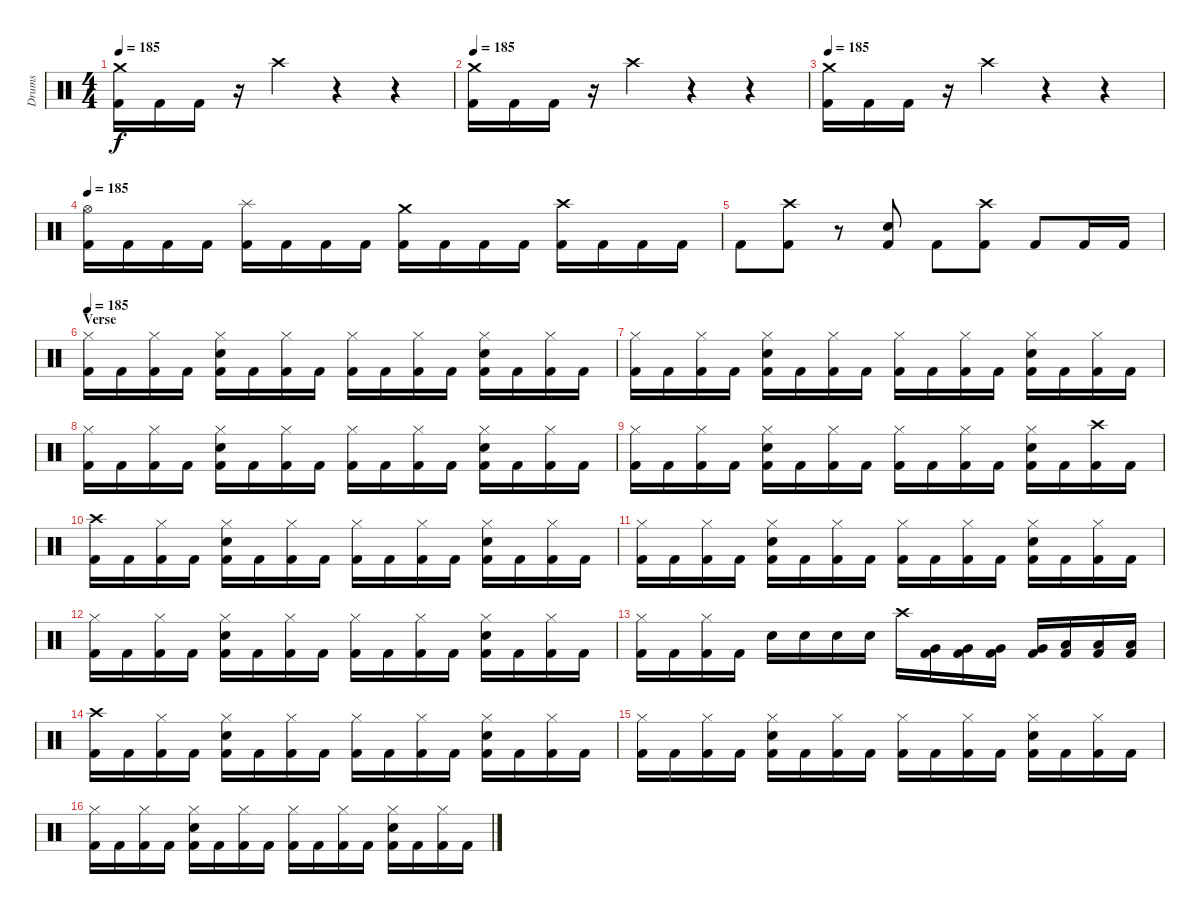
\track ("Drums" "Drums") {instrument percussion}
\staff {score}
\articulation defaults
\ts (4 4)
\tempo 185
\clef neutral
\ks c
("Crash medium (hit)" "Kick (hit) 2").16{dy f} "Kick (hit) 2".16 "Kick (hit) 2".16 r.16 "Crash high (hit)".4 r.4 r.4 |
\tempo 185
("Crash medium (hit)" "Kick (hit) 2").16 "Kick (hit) 2".16 "Kick (hit) 2".16 r.16 "Crash high (hit)".4 r.4 r.4 |
\tempo 185
("Crash medium (hit)" "Kick (hit) 2").16 "Kick (hit) 2".16 "Kick (hit) 2".16 r.16 "Crash high (hit)".4 r.4 r.4 |
\tempo 185
("Hi-Hat (open)" "Kick (hit) 2").16 "Kick (hit) 2".16 "Kick (hit) 2".16 "Kick (hit) 2".16 ("Splash (hit)" "Kick (hit) 2").16 "Kick (hit) 2".16 "Kick (hit) 2".16 "Kick (hit) 2".16 ("Crash medium (hit)" "Kick (hit) 2").16 "Kick (hit) 2".16 "Kick (hit) 2".16 "Kick (hit) 2".16 ("Crash high (hit)" "Kick (hit) 2").16 "Kick (hit) 2".16 "Kick (hit) 2".16 "Kick (hit) 2".16 |
"Kick (hit) 2".8 ("Crash high (hit)" "Kick (hit) 2").8 r.8 ("Electric Snare (hit)" "Kick (hit) 2").8 "Kick (hit) 2".8 ("Crash high (hit)" "Kick (hit) 2").8 "Kick (hit) 2".8 "Kick (hit) 2".16 "Kick (hit) 2".16 |
\section ("" "Verse")
\tempo 185
("Hi-Hat (closed)" "Kick (hit) 2").16 "Kick (hit) 2".16 ("Hi-Hat (closed)" "Kick (hit) 2").16 "Kick (hit) 2".16 ("Hi-Hat (closed)" "Electric Snare (hit)" "Kick (hit) 2").16 "Kick (hit) 2".16 ("Hi-Hat (closed)" "Kick (hit) 2").16 "Kick (hit) 2".16 ("Hi-Hat (closed)" "Kick (hit) 2").16 "Kick (hit) 2".16 ("Hi-Hat (closed)" "Kick (hit) 2").16 "Kick (hit) 2".16 ("Hi-Hat (closed)" "Electric Snare (hit)" "Kick (hit) 2").16 "Kick (hit) 2".16 ("Hi-Hat (closed)" "Kick (hit) 2").16 "Kick (hit) 2".16 |
("Hi-Hat (closed)" "Kick (hit) 2").16 "Kick (hit) 2".16 ("Hi-Hat (closed)" "Kick (hit) 2").16 "Kick (hit) 2".16 ("Hi-Hat (closed)" "Electric Snare (hit)" "Kick (hit) 2").16 "Kick (hit) 2".16 ("Hi-Hat (closed)" "Kick (hit) 2").16 "Kick (hit) 2".16 ("Hi-Hat (closed)" "Kick (hit) 2").16 "Kick (hit) 2".16 ("Hi-Hat (closed)" "Kick (hit) 2").16 "Kick (hit) 2".16 ("Hi-Hat (closed)" "Electric Snare (hit)" "Kick (hit) 2").16 "Kick (hit) 2".16 ("Hi-Hat (closed)" "Kick (hit) 2").16 "Kick (hit) 2".16 |
("Hi-Hat (closed)" "Kick (hit) 2").16 "Kick (hit) 2".16 ("Hi-Hat (closed)" "Kick (hit) 2").16 "Kick (hit) 2".16 ("Hi-Hat (closed)" "Electric Snare (hit)" "Kick (hit) 2").16 "Kick (hit) 2".16 ("Hi-Hat (closed)" "Kick (hit) 2").16 "Kick (hit) 2".16 ("Hi-Hat (closed)" "Kick (hit) 2").16 "Kick (hit) 2".16 ("Hi-Hat (closed)" "Kick (hit) 2").16 "Kick (hit) 2".16 ("Hi-Hat (closed)" "Electric Snare (hit)" "Kick (hit) 2").16 "Kick (hit) 2".16 ("Hi-Hat (closed)" "Kick (hit) 2").16 "Kick (hit) 2".16 |
("Hi-Hat (closed)" "Kick (hit) 2").16 "Kick (hit) 2".16 ("Hi-Hat (closed)" "Kick (hit) 2").16 "Kick (hit) 2".16 ("Hi-Hat (closed)" "Electric Snare (hit)" "Kick (hit) 2").16 "Kick (hit) 2".16 ("Hi-Hat (closed)" "Kick (hit) 2").16 "Kick (hit) 2".16 ("Hi-Hat (closed)" "Kick (hit) 2").16 "Kick (hit) 2".16 ("Hi-Hat (closed)" "Kick (hit) 2").16 "Kick (hit) 2".16 ("Hi-Hat (closed)" "Electric Snare (hit)" "Kick (hit) 2").16 "Kick (hit) 2".16 ("Crash high (hit)" "Kick (hit) 2").16 "Kick (hit) 2".16 |
("Crash high (hit)" "Kick (hit) 2").16 "Kick (hit) 2".16 ("Hi-Hat (closed)" "Kick (hit) 2").16 "Kick (hit) 2".16 ("Hi-Hat (closed)" "Electric Snare (hit)" "Kick (hit) 2").16 "Kick (hit) 2".16 ("Hi-Hat (closed)" "Kick (hit) 2").16 "Kick (hit) 2".16 ("Hi-Hat (closed)" "Kick (hit) 2").16 "Kick (hit) 2".16 ("Hi-Hat (closed)" "Kick (hit) 2").16 "Kick (hit) 2".16 ("Hi-Hat (closed)" "Electric Snare (hit)" "Kick (hit) 2").16 "Kick (hit) 2".16 ("Hi-Hat (closed)" "Kick (hit) 2").16 "Kick (hit) 2".16 |
("Hi-Hat (closed)" "Kick (hit) 2").16 "Kick (hit) 2".16 ("Hi-Hat (closed)" "Kick (hit) 2").16 "Kick (hit) 2".16 ("Hi-Hat (closed)" "Electric Snare (hit)" "Kick (hit) 2").16 "Kick (hit) 2".16 ("Hi-Hat (closed)" "Kick (hit) 2").16 "Kick (hit) 2".16 ("Hi-Hat (closed)" "Kick (hit) 2").16 "Kick (hit) 2".16 ("Hi-Hat (closed)" "Kick (hit) 2").16 "Kick (hit) 2".16 ("Hi-Hat (closed)" "Electric Snare (hit)" "Kick (hit) 2").16 "Kick (hit) 2".16 ("Hi-Hat (closed)" "Kick (hit) 2").16 "Kick (hit) 2".16 |
("Hi-Hat (closed)" "Kick (hit) 2").16 "Kick (hit) 2".16 ("Hi-Hat (closed)" "Kick (hit) 2").16 "Kick (hit) 2".16 ("Hi-Hat (closed)" "Electric Snare (hit)" "Kick (hit) 2").16 "Kick (hit) 2".16 ("Hi-Hat (closed)" "Kick (hit) 2").16 "Kick (hit) 2".16 ("Hi-Hat (closed)" "Kick (hit) 2").16 "Kick (hit) 2".16 ("Hi-Hat (closed)" "Kick (hit) 2").16 "Kick (hit) 2".16 ("Hi-Hat (closed)" "Electric Snare (hit)" "Kick (hit) 2").16 "Kick (hit) 2".16 ("Hi-Hat (closed)" "Kick (hit) 2").16 "Kick (hit) 2".16 |
("Hi-Hat (closed)" "Kick (hit) 2").16 "Kick (hit) 2".16 ("Hi-Hat (closed)" "Kick (hit) 2").16 "Kick (hit) 2".16 "Electric Snare (hit)".16 "Electric Snare (hit)".16 "Electric Snare (hit)".16 "Electric Snare (hit)".16 "Crash high (hit)".16 ("Very Low Tom (hit)" "Kick (hit) 2").16 ("Very Low Tom (hit)" "Kick (hit) 2").16 ("Very Low Tom (hit)" "Kick (hit) 2").16 ("Very Low Tom (hit)" "Kick (hit) 2").16 ("Low Floor Tom (hit)" "Kick (hit) 2").16 ("Low Floor Tom (hit)" "Kick (hit) 2").16 ("Low Floor Tom (hit)" "Kick (hit) 2").16 |
("Crash high (hit)" "Kick (hit) 2").16 "Kick (hit) 2".16 ("Hi-Hat (closed)" "Kick (hit) 2").16 "Kick (hit) 2".16 ("Hi-Hat (closed)" "Electric Snare (hit)" "Kick (hit) 2").16 "Kick (hit) 2".16 ("Hi-Hat (closed)" "Kick (hit) 2").16 "Kick (hit) 2".16 ("Hi-Hat (closed)" "Kick (hit) 2").16 "Kick (hit) 2".16 ("Hi-Hat (closed)" "Kick (hit) 2").16 "Kick (hit) 2".16 ("Hi-Hat (closed)" "Electric Snare (hit)" "Kick (hit) 2").16 "Kick (hit) 2".16 ("Hi-Hat (closed)" "Kick (hit) 2").16 "Kick (hit) 2".16 |
("Hi-Hat (closed)" "Kick (hit) 2").16 "Kick (hit) 2".16 ("Hi-Hat (closed)" "Kick (hit) 2").16 "Kick (hit) 2".16 ("Hi-Hat (closed)" "Electric Snare (hit)" "Kick (hit) 2").16 "Kick (hit) 2".16 ("Hi-Hat (closed)" "Kick (hit) 2").16 "Kick (hit) 2".16 ("Hi-Hat (closed)" "Kick (hit) 2").16 "Kick (hit) 2".16 ("Hi-Hat (closed)" "Kick (hit) 2").16 "Kick (hit) 2".16 ("Hi-Hat (closed)" "Electric Snare (hit)" "Kick (hit) 2").16 "Kick (hit) 2".16 ("Hi-Hat (closed)" "Kick (hit) 2").16 "Kick (hit) 2".16 |
("Hi-Hat (closed)" "Kick (hit) 2").16 "Kick (hit) 2".16 ("Hi-Hat (closed)" "Kick (hit) 2").16 "Kick (hit) 2".16 ("Hi-Hat (closed)" "Electric Snare (hit)" "Kick (hit) 2").16 "Kick (hit) 2".16 ("Hi-Hat (closed)" "Kick (hit) 2").16 "Kick (hit) 2".16 ("Hi-Hat (closed)" "Kick (hit) 2").16 "Kick (hit) 2".16 ("Hi-Hat (closed)" "Kick (hit) 2").16 "Kick (hit) 2".16 ("Hi-Hat (closed)" "Electric Snare (hit)" "Kick (hit) 2").16 "Kick (hit) 2".16 ("Hi-Hat (closed)" "Kick (hit) 2").16 "Kick (hit) 2".16
